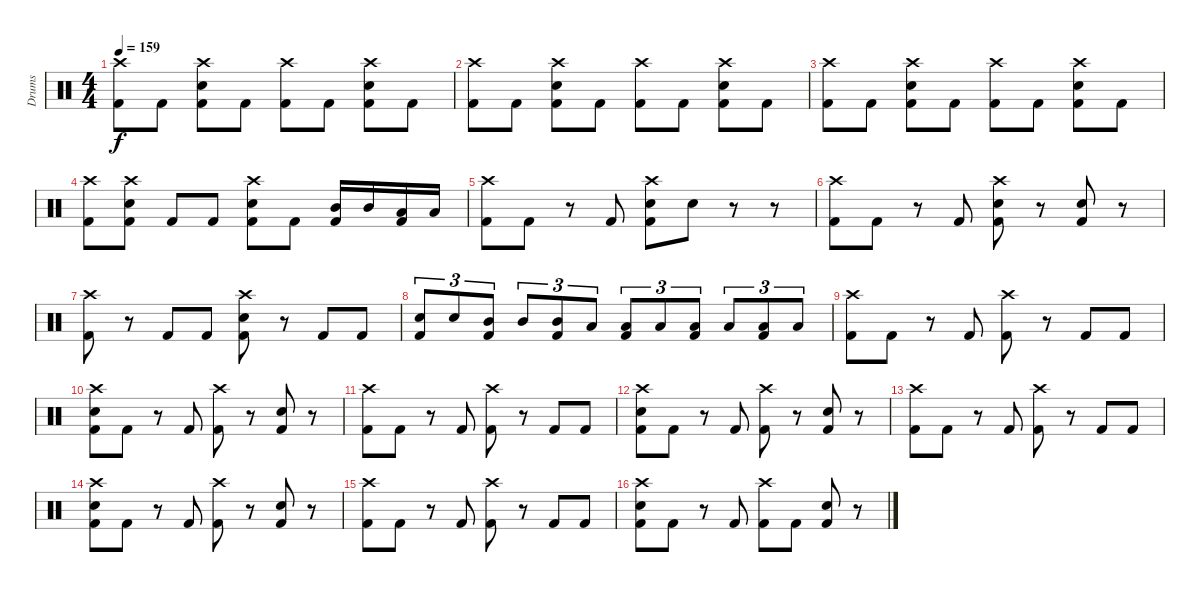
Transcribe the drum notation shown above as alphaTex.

\track ("Drums" "Drums") {instrument percussion}
\staff {score}
\articulation defaults
\ts (4 4)
\tempo 159
\clef neutral
\ks c
("Crash high (hit)" "Kick (hit) 2").8{dy f} "Kick (hit) 2".8 ("Crash high (hit)" "Electric Snare (hit)" "Kick (hit) 2").8 "Kick (hit) 2".8 ("Crash high (hit)" "Kick (hit) 2").8 "Kick (hit) 2".8 ("Crash high (hit)" "Electric Snare (hit)" "Kick (hit) 2").8 "Kick (hit) 2".8 |
("Crash high (hit)" "Kick (hit) 2").8 "Kick (hit) 2".8 ("Crash high (hit)" "Electric Snare (hit)" "Kick (hit) 2").8 "Kick (hit) 2".8 ("Crash high (hit)" "Kick (hit) 2").8 "Kick (hit) 2".8 ("Crash high (hit)" "Electric Snare (hit)" "Kick (hit) 2").8 "Kick (hit) 2".8 |
("Crash high (hit)" "Kick (hit) 2").8 "Kick (hit) 2".8 ("Crash high (hit)" "Electric Snare (hit)" "Kick (hit) 2").8 "Kick (hit) 2".8 ("Crash high (hit)" "Kick (hit) 2").8 "Kick (hit) 2".8 ("Crash high (hit)" "Electric Snare (hit)" "Kick (hit) 2").8 "Kick (hit) 2".8 |
("Crash high (hit)" "Kick (hit) 2").8 ("Crash high (hit)" "Electric Snare (hit)" "Kick (hit) 2").8 "Kick (hit) 2".8 "Kick (hit) 2".8 ("Crash high (hit)" "Electric Snare (hit)" "Kick (hit) 2").8 "Kick (hit) 2".8 ("Mid Tom (hit)" "Kick (hit) 2").16 "Mid Tom (hit)".16 ("Low Tom (hit)" "Kick (hit) 2").16 "Low Tom (hit)".16 |
("Crash high (hit)" "Kick (hit) 2").8 "Kick (hit) 2".8 r.8 "Kick (hit) 2".8 ("Crash high (hit)" "Electric Snare (hit)" "Kick (hit) 2").8 "Electric Snare (hit)".8 r.8 r.8 |
("Crash high (hit)" "Kick (hit) 2").8 "Kick (hit) 2".8 r.8 "Kick (hit) 2".8 ("Crash high (hit)" "Electric Snare (hit)" "Kick (hit) 2").8 r.8 ("Electric Snare (hit)" "Kick (hit) 2").8 r.8 |
("Crash high (hit)" "Kick (hit) 2").8 r.8 "Kick (hit) 2".8 "Kick (hit) 2".8 ("Crash high (hit)" "Electric Snare (hit)" "Kick (hit) 2").8 r.8 "Kick (hit) 2".8 "Kick (hit) 2".8 |
("Electric Snare (hit)" "Kick (hit) 2").8{tu (3 2)} "Electric Snare (hit)".8{tu (3 2)} ("Mid Tom (hit)" "Kick (hit) 2").8{tu (3 2)} "Mid Tom (hit)".8{tu (3 2)} ("Mid Tom (hit)" "Kick (hit) 2").8{tu (3 2)} "Low Tom (hit)".8{tu (3 2)} ("Low Tom (hit)" "Kick (hit) 2").8{tu (3 2)} "Low Tom (hit)".8{tu (3 2)} ("Low Floor Tom (hit)" "Kick (hit) 2").8{tu (3 2)} "Low Floor Tom (hit)".8{tu (3 2)} ("Low Floor Tom (hit)" "Kick (hit) 2").8{tu (3 2)} "Low Floor Tom (hit)".8{tu (3 2)} |
("Crash high (hit)" "Kick (hit) 2").8 "Kick (hit) 2".8 r.8 "Kick (hit) 2".8 ("Crash high (hit)" "Kick (hit) 2").8 r.8 "Kick (hit) 2".8 "Kick (hit) 2".8 |
("Crash high (hit)" "Electric Snare (hit)" "Kick (hit) 2").8 "Kick (hit) 2".8 r.8 "Kick (hit) 2".8 ("Crash high (hit)" "Kick (hit) 2").8 r.8 ("Electric Snare (hit)" "Kick (hit) 2").8 r.8 |
("Crash high (hit)" "Kick (hit) 2").8 "Kick (hit) 2".8 r.8 "Kick (hit) 2".8 ("Crash high (hit)" "Kick (hit) 2").8 r.8 "Kick (hit) 2".8 "Kick (hit) 2".8 |
("Crash high (hit)" "Electric Snare (hit)" "Kick (hit) 2").8 "Kick (hit) 2".8 r.8 "Kick (hit) 2".8 ("Crash high (hit)" "Kick (hit) 2").8 r.8 ("Electric Snare (hit)" "Kick (hit) 2").8 r.8 |
("Crash high (hit)" "Kick (hit) 2").8 "Kick (hit) 2".8 r.8 "Kick (hit) 2".8 ("Crash high (hit)" "Kick (hit) 2").8 r.8 "Kick (hit) 2".8 "Kick (hit) 2".8 |
("Crash high (hit)" "Electric Snare (hit)" "Kick (hit) 2").8 "Kick (hit) 2".8 r.8 "Kick (hit) 2".8 ("Crash high (hit)" "Kick (hit) 2").8 r.8 ("Electric Snare (hit)" "Kick (hit) 2").8 r.8 |
("Crash high (hit)" "Kick (hit) 2").8 "Kick (hit) 2".8 r.8 "Kick (hit) 2".8 ("Crash high (hit)" "Kick (hit) 2").8 r.8 "Kick (hit) 2".8 "Kick (hit) 2".8 |
("Crash high (hit)" "Electric Snare (hit)" "Kick (hit) 2").8 "Kick (hit) 2".8 r.8 "Kick (hit) 2".8 ("Crash high (hit)" "Kick (hit) 2").8 "Kick (hit) 2".8 ("Electric Snare (hit)" "Kick (hit) 2").8 r.8
